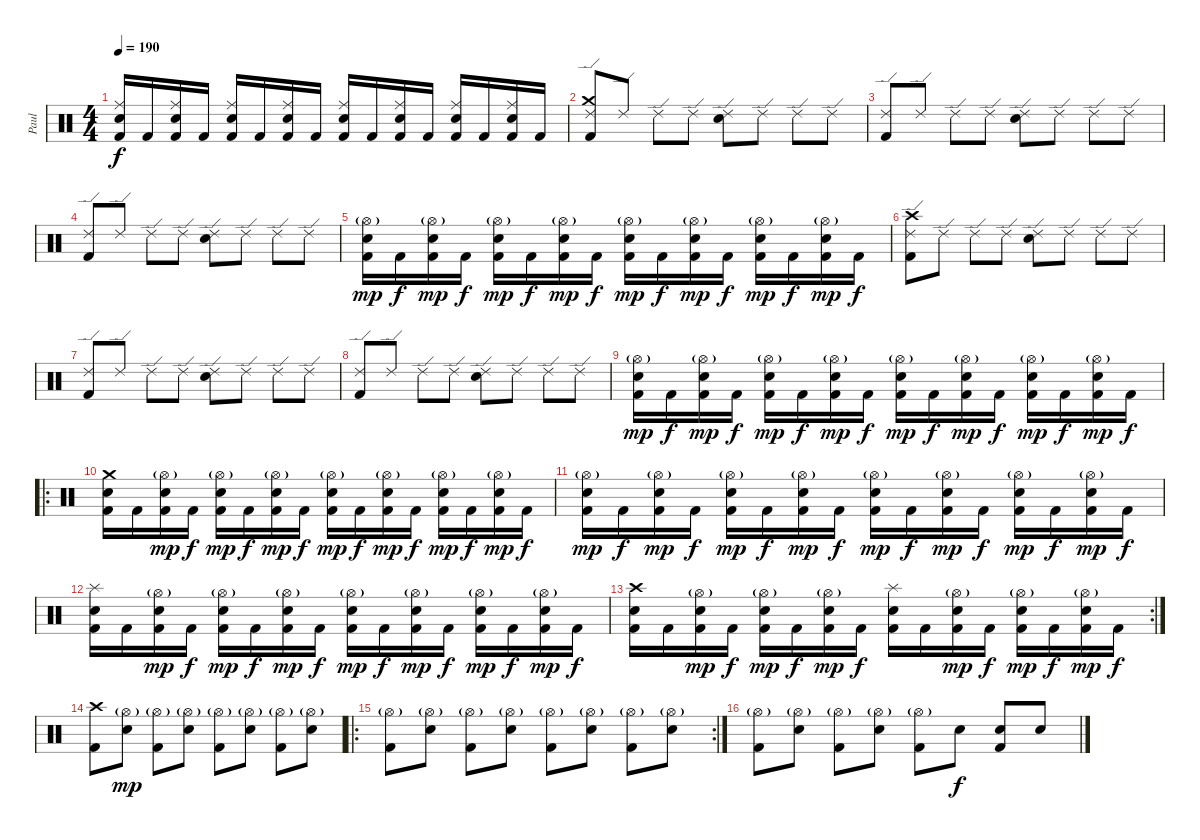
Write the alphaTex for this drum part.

\track ("Paul" "Paul") {instrument percussion}
\staff {score}
\articulation defaults
\ts (4 4)
\tempo 190
\clef neutral
\ks c
("Electric Snare (hit)" "Ride (middle)" "Kick (hit) 2").16{dy f} "Kick (hit) 2".16 ("Electric Snare (hit)" "Ride (middle)" "Kick (hit) 2").16 "Kick (hit) 2".16 ("Electric Snare (hit)" "Ride (middle)" "Kick (hit) 2").16 "Kick (hit) 2".16 ("Electric Snare (hit)" "Ride (middle)" "Kick (hit) 2").16 "Kick (hit) 2".16 ("Electric Snare (hit)" "Ride (middle)" "Kick (hit) 2").16 "Kick (hit) 2".16 ("Electric Snare (hit)" "Ride (middle)" "Kick (hit) 2").16 "Kick (hit) 2".16 ("Electric Snare (hit)" "Ride (middle)" "Kick (hit) 2").16 "Kick (hit) 2".16 ("Electric Snare (hit)" "Ride (middle)" "Kick (hit) 2").16 "Kick (hit) 2".16 |
("Crash medium (hit)" "Ride (edge) 2" "Kick (hit) 2").8 "Ride (edge) 2".8 "Ride (edge) 2".8 "Ride (edge) 2".8 ("Electric Snare (hit)" "Ride (edge) 2").8 "Ride (edge) 2".8 "Ride (edge) 2".8 "Ride (edge) 2".8 |
("Ride (edge) 2" "Kick (hit) 2").8 "Ride (edge) 2".8 "Ride (edge) 2".8 "Ride (edge) 2".8 ("Electric Snare (hit)" "Ride (edge) 2").8 "Ride (edge) 2".8 "Ride (edge) 2".8 "Ride (edge) 2".8 |
("Ride (edge) 2" "Kick (hit) 2").8 "Ride (edge) 2".8 "Ride (edge) 2".8 "Ride (edge) 2".8 ("Electric Snare (hit)" "Ride (edge) 2").8 "Ride (edge) 2".8 "Ride (edge) 2".8 "Ride (edge) 2".8 |
("Electric Snare (hit)" "Hi-Hat (open)"{g} "Kick (hit) 2").16{dy mp} "Kick (hit) 2".16{dy f} ("Electric Snare (hit)" "Hi-Hat (open)"{g} "Kick (hit) 2").16{dy mp} "Kick (hit) 2".16{dy f} ("Electric Snare (hit)" "Hi-Hat (open)"{g} "Kick (hit) 2").16{dy mp} "Kick (hit) 2".16{dy f} ("Electric Snare (hit)" "Hi-Hat (open)"{g} "Kick (hit) 2").16{dy mp} "Kick (hit) 2".16{dy f} ("Electric Snare (hit)" "Hi-Hat (open)"{g} "Kick (hit) 2").16{dy mp} "Kick (hit) 2".16{dy f} ("Electric Snare (hit)" "Hi-Hat (open)"{g} "Kick (hit) 2").16{dy mp} "Kick (hit) 2".16{dy f} ("Electric Snare (hit)" "Hi-Hat (open)"{g} "Kick (hit) 2").16{dy mp} "Kick (hit) 2".16{dy f} ("Electric Snare (hit)" "Hi-Hat (open)"{g} "Kick (hit) 2").16{dy mp} "Kick (hit) 2".16{dy f} |
("Crash high (hit)" "Ride (edge) 2" "Kick (hit) 2").8 "Ride (edge) 2".8 "Ride (edge) 2".8 "Ride (edge) 2".8 ("Electric Snare (hit)" "Ride (edge) 2").8 "Ride (edge) 2".8 "Ride (edge) 2".8 "Ride (edge) 2".8 |
("Ride (edge) 2" "Kick (hit) 2").8 "Ride (edge) 2".8 "Ride (edge) 2".8 "Ride (edge) 2".8 ("Electric Snare (hit)" "Ride (edge) 2").8 "Ride (edge) 2".8 "Ride (edge) 2".8 "Ride (edge) 2".8 |
("Ride (edge) 2" "Kick (hit) 2").8 "Ride (edge) 2".8 "Ride (edge) 2".8 "Ride (edge) 2".8 ("Electric Snare (hit)" "Ride (edge) 2").8 "Ride (edge) 2".8 "Ride (edge) 2".8 "Ride (edge) 2".8 |
("Electric Snare (hit)" "Hi-Hat (open)"{g} "Kick (hit) 2").16{dy mp} "Kick (hit) 2".16{dy f} ("Electric Snare (hit)" "Hi-Hat (open)"{g} "Kick (hit) 2").16{dy mp} "Kick (hit) 2".16{dy f} ("Electric Snare (hit)" "Hi-Hat (open)"{g} "Kick (hit) 2").16{dy mp} "Kick (hit) 2".16{dy f} ("Electric Snare (hit)" "Hi-Hat (open)"{g} "Kick (hit) 2").16{dy mp} "Kick (hit) 2".16{dy f} ("Electric Snare (hit)" "Hi-Hat (open)"{g} "Kick (hit) 2").16{dy mp} "Kick (hit) 2".16{dy f} ("Electric Snare (hit)" "Hi-Hat (open)"{g} "Kick (hit) 2").16{dy mp} "Kick (hit) 2".16{dy f} ("Electric Snare (hit)" "Hi-Hat (open)"{g} "Kick (hit) 2").16{dy mp} "Kick (hit) 2".16{dy f} ("Electric Snare (hit)" "Hi-Hat (open)"{g} "Kick (hit) 2").16{dy mp} "Kick (hit) 2".16{dy f} |
\ro
("Electric Snare (hit)" "Crash medium (hit)" "Kick (hit) 2").16 "Kick (hit) 2".16 ("Electric Snare (hit)" "Hi-Hat (open)"{g} "Kick (hit) 2").16{dy mp} "Kick (hit) 2".16{dy f} ("Electric Snare (hit)" "Hi-Hat (open)"{g} "Kick (hit) 2").16{dy mp} "Kick (hit) 2".16{dy f} ("Electric Snare (hit)" "Hi-Hat (open)"{g} "Kick (hit) 2").16{dy mp} "Kick (hit) 2".16{dy f} ("Electric Snare (hit)" "Hi-Hat (open)"{g} "Kick (hit) 2").16{dy mp} "Kick (hit) 2".16{dy f} ("Electric Snare (hit)" "Hi-Hat (open)"{g} "Kick (hit) 2").16{dy mp} "Kick (hit) 2".16{dy f} ("Electric Snare (hit)" "Hi-Hat (open)"{g} "Kick (hit) 2").16{dy mp} "Kick (hit) 2".16{dy f} ("Electric Snare (hit)" "Hi-Hat (open)"{g} "Kick (hit) 2").16{dy mp} "Kick (hit) 2".16{dy f} |
("Electric Snare (hit)" "Hi-Hat (open)"{g} "Kick (hit) 2").16{dy mp} "Kick (hit) 2".16{dy f} ("Electric Snare (hit)" "Hi-Hat (open)"{g} "Kick (hit) 2").16{dy mp} "Kick (hit) 2".16{dy f} ("Electric Snare (hit)" "Hi-Hat (open)"{g} "Kick (hit) 2").16{dy mp} "Kick (hit) 2".16{dy f} ("Electric Snare (hit)" "Hi-Hat (open)"{g} "Kick (hit) 2").16{dy mp} "Kick (hit) 2".16{dy f} ("Electric Snare (hit)" "Hi-Hat (open)"{g} "Kick (hit) 2").16{dy mp} "Kick (hit) 2".16{dy f} ("Electric Snare (hit)" "Hi-Hat (open)"{g} "Kick (hit) 2").16{dy mp} "Kick (hit) 2".16{dy f} ("Electric Snare (hit)" "Hi-Hat (open)"{g} "Kick (hit) 2").16{dy mp} "Kick (hit) 2".16{dy f} ("Electric Snare (hit)" "Hi-Hat (open)"{g} "Kick (hit) 2").16{dy mp} "Kick (hit) 2".16{dy f} |
("Electric Snare (hit)" "Splash (hit)" "Kick (hit) 2").16 "Kick (hit) 2".16 ("Electric Snare (hit)" "Hi-Hat (open)"{g} "Kick (hit) 2").16{dy mp} "Kick (hit) 2".16{dy f} ("Electric Snare (hit)" "Hi-Hat (open)"{g} "Kick (hit) 2").16{dy mp} "Kick (hit) 2".16{dy f} ("Electric Snare (hit)" "Hi-Hat (open)"{g} "Kick (hit) 2").16{dy mp} "Kick (hit) 2".16{dy f} ("Electric Snare (hit)" "Hi-Hat (open)"{g} "Kick (hit) 2").16{dy mp} "Kick (hit) 2".16{dy f} ("Electric Snare (hit)" "Hi-Hat (open)"{g} "Kick (hit) 2").16{dy mp} "Kick (hit) 2".16{dy f} ("Electric Snare (hit)" "Hi-Hat (open)"{g} "Kick (hit) 2").16{dy mp} "Kick (hit) 2".16{dy f} ("Electric Snare (hit)" "Hi-Hat (open)"{g} "Kick (hit) 2").16{dy mp} "Kick (hit) 2".16{dy f} |
\rc 2
("Electric Snare (hit)" "Crash high (hit)" "Kick (hit) 2").16 "Kick (hit) 2".16 ("Electric Snare (hit)" "Hi-Hat (open)"{g} "Kick (hit) 2").16{dy mp} "Kick (hit) 2".16{dy f} ("Electric Snare (hit)" "Hi-Hat (open)"{g} "Kick (hit) 2").16{dy mp} "Kick (hit) 2".16{dy f} ("Electric Snare (hit)" "Hi-Hat (open)"{g} "Kick (hit) 2").16{dy mp} "Kick (hit) 2".16{dy f} ("Electric Snare (hit)" "Splash (hit)" "Kick (hit) 2").16 "Kick (hit) 2".16 ("Electric Snare (hit)" "Hi-Hat (open)"{g} "Kick (hit) 2").16{dy mp} "Kick (hit) 2".16{dy f} ("Electric Snare (hit)" "Hi-Hat (open)"{g} "Kick (hit) 2").16{dy mp} "Kick (hit) 2".16{dy f} ("Electric Snare (hit)" "Hi-Hat (open)"{g} "Kick (hit) 2").16{dy mp} "Kick (hit) 2".16{dy f} |
("Crash high (hit)" "Kick (hit) 2").8 ("Hi-Hat (open)"{g} "Electric Snare (hit)").8{dy mp} ("Hi-Hat (open)"{g} "Kick (hit) 2").8 ("Hi-Hat (open)"{g} "Electric Snare (hit)").8 ("Hi-Hat (open)"{g} "Kick (hit) 2").8 ("Hi-Hat (open)"{g} "Electric Snare (hit)").8 ("Hi-Hat (open)"{g} "Kick (hit) 2").8 ("Hi-Hat (open)"{g} "Electric Snare (hit)").8 |
\ro
\rc 2
("Hi-Hat (open)"{g} "Kick (hit) 2").8 ("Hi-Hat (open)"{g} "Electric Snare (hit)").8 ("Hi-Hat (open)"{g} "Kick (hit) 2").8 ("Hi-Hat (open)"{g} "Electric Snare (hit)").8 ("Hi-Hat (open)"{g} "Kick (hit) 2").8 ("Hi-Hat (open)"{g} "Electric Snare (hit)").8 ("Hi-Hat (open)"{g} "Kick (hit) 2").8 ("Hi-Hat (open)"{g} "Electric Snare (hit)").8 |
("Hi-Hat (open)"{g} "Kick (hit) 2").8 ("Electric Snare (hit)" "Hi-Hat (open)"{g}).8 ("Hi-Hat (open)"{g} "Kick (hit) 2").8 ("Electric Snare (hit)" "Hi-Hat (open)"{g}).8 ("Hi-Hat (open)"{g} "Kick (hit) 2").8 "Electric Snare (hit)".8{dy f} ("Electric Snare (hit)" "Kick (hit) 2").8 "Electric Snare (hit)".8
